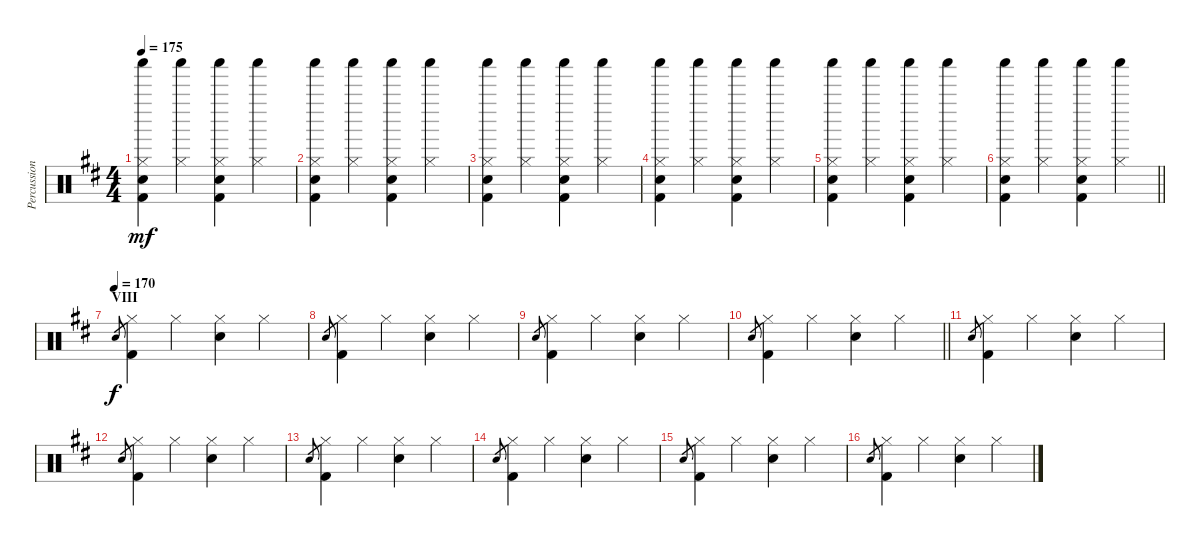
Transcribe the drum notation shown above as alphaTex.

\track ("Percussion [Nick Mason]" "Percussion") {instrument percussion}
\staff {score}
\articulation defaults
\ts (4 4)
\tempo 175
\clef neutral
\ks d
("Shaker (hit)" "Hi-Hat (closed)" "Snare (hit) 2" "Kick (hit) 2").4{dy mf} ("Shaker (hit)" "Hi-Hat (closed)").4 ("Shaker (hit)" "Hi-Hat (closed)" "Snare (hit) 2" "Kick (hit) 2").4 ("Shaker (hit)" "Hi-Hat (closed)").4 |
("Shaker (hit)" "Hi-Hat (closed)" "Snare (hit) 2" "Kick (hit) 2").4 ("Shaker (hit)" "Hi-Hat (closed)").4 ("Shaker (hit)" "Hi-Hat (closed)" "Snare (hit) 2" "Kick (hit) 2").4 ("Shaker (hit)" "Hi-Hat (closed)").4 |
("Shaker (hit)" "Hi-Hat (closed)" "Snare (hit) 2" "Kick (hit) 2").4 ("Shaker (hit)" "Hi-Hat (closed)").4 ("Shaker (hit)" "Hi-Hat (closed)" "Snare (hit) 2" "Kick (hit) 2").4 ("Shaker (hit)" "Hi-Hat (closed)").4 |
("Shaker (hit)" "Hi-Hat (closed)" "Snare (hit) 2" "Kick (hit) 2").4 ("Shaker (hit)" "Hi-Hat (closed)").4 ("Shaker (hit)" "Hi-Hat (closed)" "Snare (hit) 2" "Kick (hit) 2").4 ("Shaker (hit)" "Hi-Hat (closed)").4 |
("Shaker (hit)" "Hi-Hat (closed)" "Snare (hit) 2" "Kick (hit) 2").4 ("Shaker (hit)" "Hi-Hat (closed)").4 ("Shaker (hit)" "Hi-Hat (closed)" "Snare (hit) 2" "Kick (hit) 2").4 ("Shaker (hit)" "Hi-Hat (closed)").4 |
\barLineRight lightlight
("Shaker (hit)" "Hi-Hat (closed)" "Snare (hit) 2" "Kick (hit) 2").4 ("Shaker (hit)" "Hi-Hat (closed)").4 ("Shaker (hit)" "Hi-Hat (closed)" "Snare (hit) 2" "Kick (hit) 2").4 ("Shaker (hit)" "Hi-Hat (closed)").4 |
\section ("" "VIII")
\tempo (170)
"Snare (hit) 2".8{gr dy f} ("Hi-Hat (closed)" "Kick (hit) 2").4 "Hi-Hat (closed)".4 ("Hi-Hat (closed)" "Snare (hit) 2").4 "Hi-Hat (closed)".4 |
"Snare (hit) 2".8{gr} ("Hi-Hat (closed)" "Kick (hit) 2").4 "Hi-Hat (closed)".4 ("Hi-Hat (closed)" "Snare (hit) 2").4 "Hi-Hat (closed)".4 |
"Snare (hit) 2".8{gr} ("Hi-Hat (closed)" "Kick (hit) 2").4 "Hi-Hat (closed)".4 ("Hi-Hat (closed)" "Snare (hit) 2").4 "Hi-Hat (closed)".4 |
\barLineRight lightlight "Snare (hit) 2".8{gr}
("Hi-Hat (closed)" "Kick (hit) 2").4 "Hi-Hat (closed)".4 ("Hi-Hat (closed)" "Snare (hit) 2").4 "Hi-Hat (closed)".4 |
"Snare (hit) 2".8{gr} ("Hi-Hat (closed)" "Kick (hit) 2").4 "Hi-Hat (closed)".4 ("Hi-Hat (closed)" "Snare (hit) 2").4 "Hi-Hat (closed)".4 |
"Snare (hit) 2".8{gr} ("Hi-Hat (closed)" "Kick (hit) 2").4 "Hi-Hat (closed)".4 ("Hi-Hat (closed)" "Snare (hit) 2").4 "Hi-Hat (closed)".4 |
"Snare (hit) 2".8{gr} ("Hi-Hat (closed)" "Kick (hit) 2").4 "Hi-Hat (closed)".4 ("Hi-Hat (closed)" "Snare (hit) 2").4 "Hi-Hat (closed)".4 |
"Snare (hit) 2".8{gr} ("Hi-Hat (closed)" "Kick (hit) 2").4 "Hi-Hat (closed)".4 ("Hi-Hat (closed)" "Snare (hit) 2").4 "Hi-Hat (closed)".4 |
"Snare (hit) 2".8{gr} ("Hi-Hat (closed)" "Kick (hit) 2").4 "Hi-Hat (closed)".4 ("Hi-Hat (closed)" "Snare (hit) 2").4 "Hi-Hat (closed)".4 |
"Snare (hit) 2".8{gr} ("Hi-Hat (closed)" "Kick (hit) 2").4 "Hi-Hat (closed)".4 ("Hi-Hat (closed)" "Snare (hit) 2").4 "Hi-Hat (closed)".4
